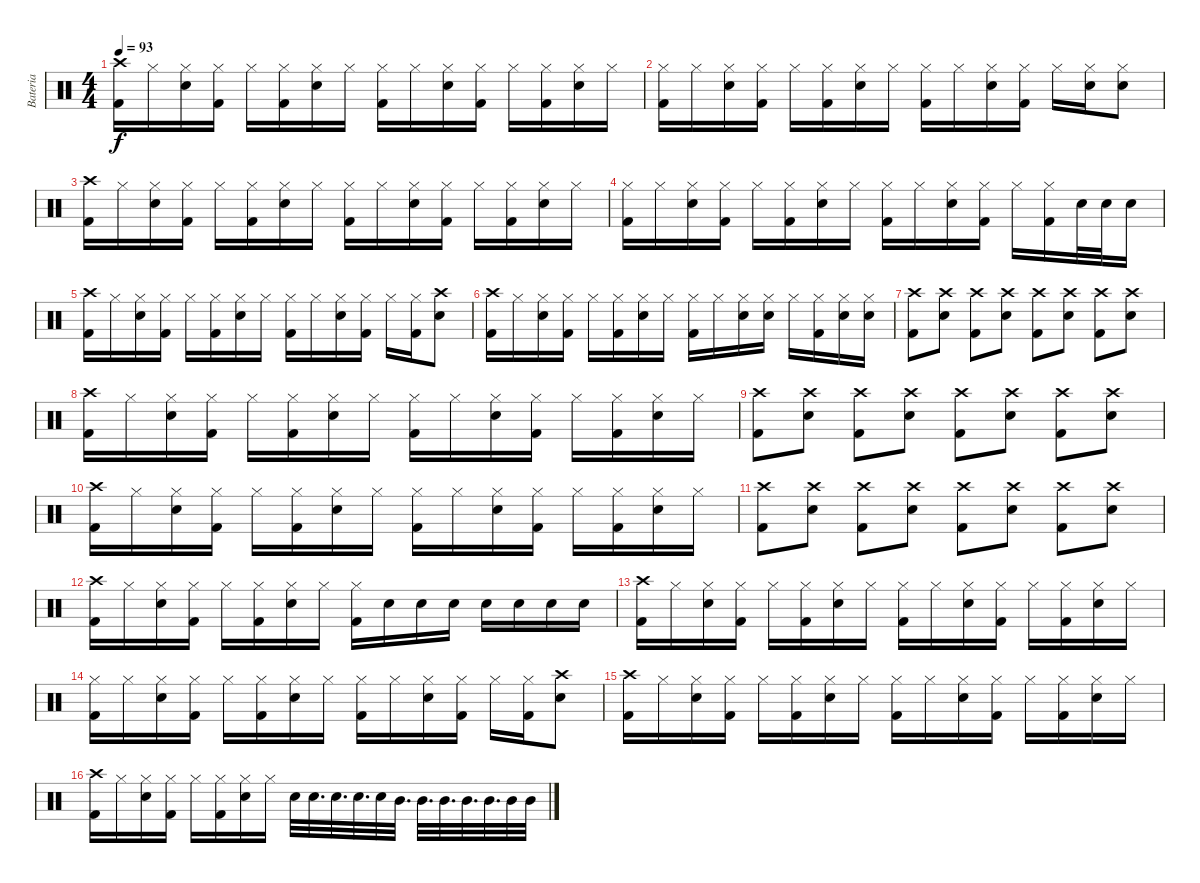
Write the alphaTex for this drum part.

\track ("Bateria" "Bateria") {instrument percussion}
\staff {score}
\articulation defaults
\ts (4 4)
\tempo 93
\clef neutral
\ks c
("Crash high (hit)" "Kick (hit) 2").16{dy f} "Hi-Hat (closed)".16 ("Hi-Hat (closed)" "Snare (hit) 2").16 ("Hi-Hat (closed)" "Kick (hit) 2").16 "Hi-Hat (closed)".16 ("Hi-Hat (closed)" "Kick (hit) 2").16 ("Hi-Hat (closed)" "Snare (hit) 2").16 "Hi-Hat (closed)".16 ("Hi-Hat (closed)" "Kick (hit) 2").16 "Hi-Hat (closed)".16 ("Hi-Hat (closed)" "Snare (hit) 2").16 ("Hi-Hat (closed)" "Kick (hit) 2").16 "Hi-Hat (closed)".16 ("Hi-Hat (closed)" "Kick (hit) 2").16 ("Hi-Hat (closed)" "Snare (hit) 2").16 "Hi-Hat (closed)".16 |
("Hi-Hat (closed)" "Kick (hit) 2").16 "Hi-Hat (closed)".16 ("Hi-Hat (closed)" "Snare (hit) 2").16 ("Hi-Hat (closed)" "Kick (hit) 2").16 "Hi-Hat (closed)".16 ("Hi-Hat (closed)" "Kick (hit) 2").16 ("Hi-Hat (closed)" "Snare (hit) 2").16 "Hi-Hat (closed)".16 ("Hi-Hat (closed)" "Kick (hit) 2").16 "Hi-Hat (closed)".16 ("Hi-Hat (closed)" "Snare (hit) 2").16 ("Hi-Hat (closed)" "Kick (hit) 2").16 "Hi-Hat (closed)".16 ("Hi-Hat (closed)" "Snare (hit) 2").16 ("Hi-Hat (closed)" "Snare (hit) 2").8 |
("Crash high (hit)" "Kick (hit) 2").16 "Hi-Hat (closed)".16 ("Hi-Hat (closed)" "Snare (hit) 2").16 ("Hi-Hat (closed)" "Kick (hit) 2").16 "Hi-Hat (closed)".16 ("Hi-Hat (closed)" "Kick (hit) 2").16 ("Hi-Hat (closed)" "Snare (hit) 2").16 "Hi-Hat (closed)".16 ("Hi-Hat (closed)" "Kick (hit) 2").16 "Hi-Hat (closed)".16 ("Hi-Hat (closed)" "Snare (hit) 2").16 ("Hi-Hat (closed)" "Kick (hit) 2").16 "Hi-Hat (closed)".16 ("Hi-Hat (closed)" "Kick (hit) 2").16 ("Hi-Hat (closed)" "Snare (hit) 2").16 "Hi-Hat (closed)".16 |
("Hi-Hat (closed)" "Kick (hit) 2").16 "Hi-Hat (closed)".16 ("Hi-Hat (closed)" "Snare (hit) 2").16 ("Hi-Hat (closed)" "Kick (hit) 2").16 "Hi-Hat (closed)".16 ("Hi-Hat (closed)" "Kick (hit) 2").16 ("Hi-Hat (closed)" "Snare (hit) 2").16 "Hi-Hat (closed)".16 ("Hi-Hat (closed)" "Kick (hit) 2").16 "Hi-Hat (closed)".16 ("Hi-Hat (closed)" "Snare (hit) 2").16 ("Hi-Hat (closed)" "Kick (hit) 2").16 "Hi-Hat (closed)".16 ("Hi-Hat (closed)" "Kick (hit) 2").16 "Snare (hit) 2".32 "Snare (hit) 2".32 "Snare (hit) 2".16 |
("Crash high (hit)" "Kick (hit) 2").16 "Hi-Hat (closed)".16 ("Hi-Hat (closed)" "Snare (hit) 2").16 ("Hi-Hat (closed)" "Kick (hit) 2").16 "Hi-Hat (closed)".16 ("Hi-Hat (closed)" "Kick (hit) 2").16 ("Hi-Hat (closed)" "Snare (hit) 2").16 "Hi-Hat (closed)".16 ("Hi-Hat (closed)" "Kick (hit) 2").16 "Hi-Hat (closed)".16 ("Hi-Hat (closed)" "Snare (hit) 2").16 ("Hi-Hat (closed)" "Kick (hit) 2").16 "Hi-Hat (closed)".16 ("Hi-Hat (closed)" "Kick (hit) 2").16 ("Crash high (hit)" "Snare (hit) 2").8 |
("Crash high (hit)" "Kick (hit) 2").16 "Hi-Hat (closed)".16 ("Hi-Hat (closed)" "Snare (hit) 2").16 ("Hi-Hat (closed)" "Kick (hit) 2").16 "Hi-Hat (closed)".16 ("Hi-Hat (closed)" "Kick (hit) 2").16 ("Hi-Hat (closed)" "Snare (hit) 2").16 "Hi-Hat (closed)".16 ("Hi-Hat (closed)" "Kick (hit) 2").16 "Hi-Hat (closed)".16 ("Hi-Hat (closed)" "Snare (hit) 2").16 ("Hi-Hat (closed)" "Snare (hit) 2").16 "Hi-Hat (closed)".16 ("Hi-Hat (closed)" "Kick (hit) 2").16 ("Hi-Hat (closed)" "Snare (hit) 2").16 ("Hi-Hat (closed)" "Snare (hit) 2").16 |
("Crash high (hit)" "Kick (hit) 2").8 ("Crash high (hit)" "Snare (hit) 2").8 ("Crash high (hit)" "Kick (hit) 2").8 ("Crash high (hit)" "Snare (hit) 2").8 ("Crash high (hit)" "Kick (hit) 2").8 ("Crash high (hit)" "Snare (hit) 2").8 ("Crash high (hit)" "Kick (hit) 2").8 ("Crash high (hit)" "Snare (hit) 2").8 |
("Crash high (hit)" "Kick (hit) 2").16 "Hi-Hat (closed)".16 ("Hi-Hat (closed)" "Snare (hit) 2").16 ("Hi-Hat (closed)" "Kick (hit) 2").16 "Hi-Hat (closed)".16 ("Hi-Hat (closed)" "Kick (hit) 2").16 ("Hi-Hat (closed)" "Snare (hit) 2").16 "Hi-Hat (closed)".16 ("Hi-Hat (closed)" "Kick (hit) 2").16 "Hi-Hat (closed)".16 ("Hi-Hat (closed)" "Snare (hit) 2").16 ("Hi-Hat (closed)" "Kick (hit) 2").16 "Hi-Hat (closed)".16 ("Hi-Hat (closed)" "Kick (hit) 2").16 ("Hi-Hat (closed)" "Snare (hit) 2").16 "Hi-Hat (closed)".16 |
("Crash high (hit)" "Kick (hit) 2").8 ("Crash high (hit)" "Snare (hit) 2").8 ("Crash high (hit)" "Kick (hit) 2").8 ("Crash high (hit)" "Snare (hit) 2").8 ("Crash high (hit)" "Kick (hit) 2").8 ("Crash high (hit)" "Snare (hit) 2").8 ("Crash high (hit)" "Kick (hit) 2").8 ("Crash high (hit)" "Snare (hit) 2").8 |
("Crash high (hit)" "Kick (hit) 2").16 "Hi-Hat (closed)".16 ("Hi-Hat (closed)" "Snare (hit) 2").16 ("Hi-Hat (closed)" "Kick (hit) 2").16 "Hi-Hat (closed)".16 ("Hi-Hat (closed)" "Kick (hit) 2").16 ("Hi-Hat (closed)" "Snare (hit) 2").16 "Hi-Hat (closed)".16 ("Hi-Hat (closed)" "Kick (hit) 2").16 "Hi-Hat (closed)".16 ("Hi-Hat (closed)" "Snare (hit) 2").16 ("Hi-Hat (closed)" "Kick (hit) 2").16 "Hi-Hat (closed)".16 ("Hi-Hat (closed)" "Kick (hit) 2").16 ("Hi-Hat (closed)" "Snare (hit) 2").16 "Hi-Hat (closed)".16 |
("Crash high (hit)" "Kick (hit) 2").8 ("Crash high (hit)" "Snare (hit) 2").8 ("Crash high (hit)" "Kick (hit) 2").8 ("Crash high (hit)" "Snare (hit) 2").8 ("Crash high (hit)" "Kick (hit) 2").8 ("Crash high (hit)" "Snare (hit) 2").8 ("Crash high (hit)" "Kick (hit) 2").8 ("Crash high (hit)" "Snare (hit) 2").8 |
("Crash high (hit)" "Kick (hit) 2").16 "Hi-Hat (closed)".16 ("Hi-Hat (closed)" "Snare (hit) 2").16 ("Hi-Hat (closed)" "Kick (hit) 2").16 "Hi-Hat (closed)".16 ("Hi-Hat (closed)" "Kick (hit) 2").16 ("Hi-Hat (closed)" "Snare (hit) 2").16 "Hi-Hat (closed)".16 ("Hi-Hat (closed)" "Kick (hit) 2").16 "Snare (hit) 2".16 "Snare (hit) 2".16 "Snare (hit) 2".16 "Snare (hit) 2".16 "Snare (hit) 2".16 "Snare (hit) 2".16 "Snare (hit) 2".16 |
("Crash high (hit)" "Kick (hit) 2").16 "Hi-Hat (closed)".16 ("Hi-Hat (closed)" "Snare (hit) 2").16 ("Hi-Hat (closed)" "Kick (hit) 2").16 "Hi-Hat (closed)".16 ("Hi-Hat (closed)" "Kick (hit) 2").16 ("Hi-Hat (closed)" "Snare (hit) 2").16 "Hi-Hat (closed)".16 ("Hi-Hat (closed)" "Kick (hit) 2").16 "Hi-Hat (closed)".16 ("Hi-Hat (closed)" "Snare (hit) 2").16 ("Hi-Hat (closed)" "Kick (hit) 2").16 "Hi-Hat (closed)".16 ("Hi-Hat (closed)" "Kick (hit) 2").16 ("Hi-Hat (closed)" "Snare (hit) 2").16 "Hi-Hat (closed)".16 |
("Hi-Hat (closed)" "Kick (hit) 2").16 "Hi-Hat (closed)".16 ("Hi-Hat (closed)" "Snare (hit) 2").16 ("Hi-Hat (closed)" "Kick (hit) 2").16 "Hi-Hat (closed)".16 ("Hi-Hat (closed)" "Kick (hit) 2").16 ("Hi-Hat (closed)" "Snare (hit) 2").16 "Hi-Hat (closed)".16 ("Hi-Hat (closed)" "Kick (hit) 2").16 "Hi-Hat (closed)".16 ("Hi-Hat (closed)" "Snare (hit) 2").16 ("Hi-Hat (closed)" "Kick (hit) 2").16 "Hi-Hat (closed)".16 ("Hi-Hat (closed)" "Kick (hit) 2").16 ("Crash high (hit)" "Snare (hit) 2").8 |
("Crash high (hit)" "Kick (hit) 2").16 "Hi-Hat (closed)".16 ("Hi-Hat (closed)" "Snare (hit) 2").16 ("Hi-Hat (closed)" "Kick (hit) 2").16 "Hi-Hat (closed)".16 ("Hi-Hat (closed)" "Kick (hit) 2").16 ("Hi-Hat (closed)" "Snare (hit) 2").16 "Hi-Hat (closed)".16 ("Hi-Hat (closed)" "Kick (hit) 2").16 "Hi-Hat (closed)".16 ("Hi-Hat (closed)" "Snare (hit) 2").16 ("Hi-Hat (closed)" "Kick (hit) 2").16 "Hi-Hat (closed)".16 ("Hi-Hat (closed)" "Kick (hit) 2").16 ("Hi-Hat (closed)" "Snare (hit) 2").16 "Hi-Hat (closed)".16 |
("Crash high (hit)" "Kick (hit) 2").16 "Hi-Hat (closed)".16 ("Hi-Hat (closed)" "Snare (hit) 2").16 ("Hi-Hat (closed)" "Kick (hit) 2").16 "Hi-Hat (closed)".16 ("Hi-Hat (closed)" "Kick (hit) 2").16 ("Hi-Hat (closed)" "Snare (hit) 2").16 "Hi-Hat (closed)".16 "Snare (hit) 2".32 "Snare (hit) 2".32{d} "Snare (hit) 2".32{d} "Snare (hit) 2".32{d} "Snare (hit) 2".32 "Mid Tom (hit)".32{d} "Mid Tom (hit)".32{d} "Mid Tom (hit)".32{d} "Mid Tom (hit)".32{d} "Mid Tom (hit)".32{d} "Mid Tom (hit)".32 "Mid Tom (hit)".32
